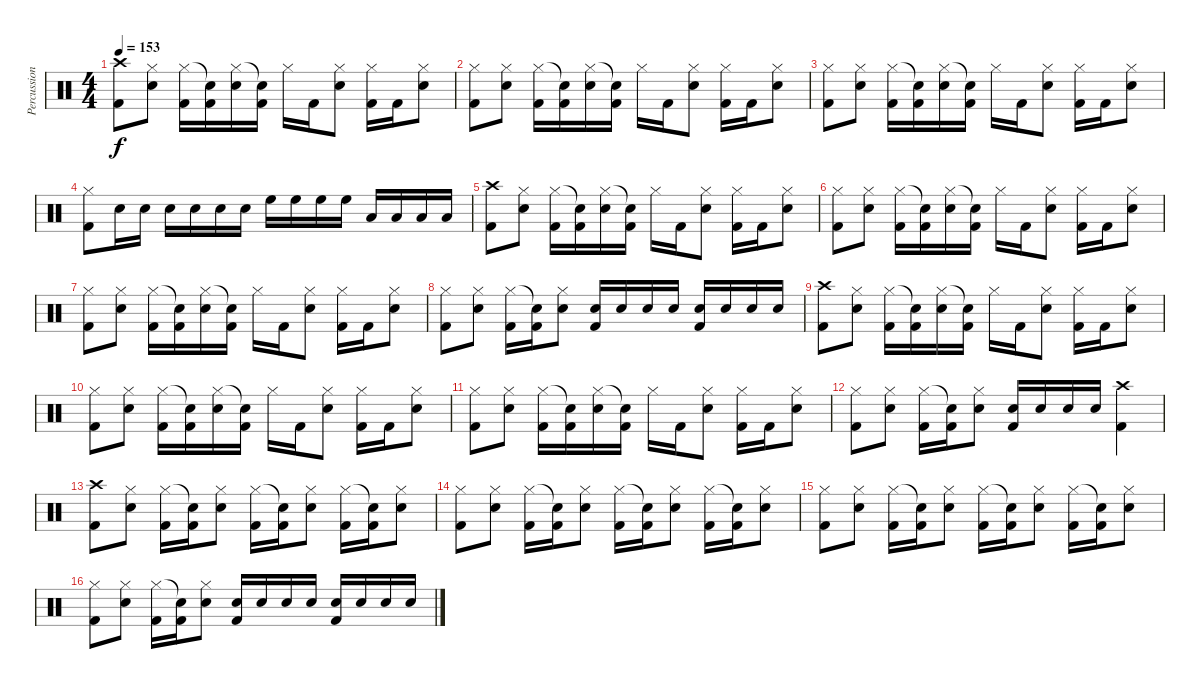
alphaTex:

\track ("Percussion" "Percussion") {instrument percussion}
\staff {score}
\articulation defaults
\ts (4 4)
\tempo 153
\clef neutral
\ks c
("Crash high (hit)" "Kick (hit) 2").8{dy f} ("Hi-Hat (closed)" "Snare (hit) 2").8 ("Hi-Hat (closed)" "Kick (hit) 2").16 ("Snare (hit)"{t} "Kick (hit) 2").16 ("Hi-Hat (closed)" "Snare (hit) 2").16 ("Snare (hit)"{t} "Kick (hit) 2").16 "Hi-Hat (closed)".16 "Kick (hit) 2".16 ("Hi-Hat (closed)" "Snare (hit) 2").8 ("Hi-Hat (closed)" "Kick (hit) 2").16 "Kick (hit) 2".16 ("Hi-Hat (closed)" "Snare (hit) 2").8 |
("Hi-Hat (closed)" "Kick (hit) 2").8 ("Hi-Hat (closed)" "Snare (hit) 2").8 ("Hi-Hat (closed)" "Kick (hit) 2").16 ("Snare (hit)"{t} "Kick (hit) 2").16 ("Hi-Hat (closed)" "Snare (hit) 2").16 ("Snare (hit)"{t} "Kick (hit) 2").16 "Hi-Hat (closed)".16 "Kick (hit) 2".16 ("Hi-Hat (closed)" "Snare (hit) 2").8 ("Hi-Hat (closed)" "Kick (hit) 2").16 "Kick (hit) 2".16 ("Hi-Hat (closed)" "Snare (hit) 2").8 |
("Hi-Hat (closed)" "Kick (hit) 2").8 ("Hi-Hat (closed)" "Snare (hit) 2").8 ("Hi-Hat (closed)" "Kick (hit) 2").16 ("Snare (hit)"{t} "Kick (hit) 2").16 ("Hi-Hat (closed)" "Snare (hit) 2").16 ("Snare (hit)"{t} "Kick (hit) 2").16 "Hi-Hat (closed)".16 "Kick (hit) 2".16 ("Hi-Hat (closed)" "Snare (hit) 2").8 ("Hi-Hat (closed)" "Kick (hit) 2").16 "Kick (hit) 2".16 ("Hi-Hat (closed)" "Snare (hit) 2").8 |
("Hi-Hat (closed)" "Kick (hit) 2").8 "Snare (hit) 2".16 "Snare (hit) 2".16 "Snare (hit) 2".16 "Snare (hit) 2".16 "Snare (hit) 2".16 "Snare (hit) 2".16 "High Floor Tom (hit)".16 "High Floor Tom (hit)".16 "High Floor Tom (hit)".16 "High Floor Tom (hit)".16 "Low Floor Tom (hit)".16 "Low Floor Tom (hit)".16 "Low Floor Tom (hit)".16 "Low Floor Tom (hit)".16 |
("Crash high (hit)" "Kick (hit) 2").8 ("Hi-Hat (closed)" "Snare (hit) 2").8 ("Hi-Hat (closed)" "Kick (hit) 2").16 ("Snare (hit)"{t} "Kick (hit) 2").16 ("Hi-Hat (closed)" "Snare (hit) 2").16 ("Snare (hit)"{t} "Kick (hit) 2").16 "Hi-Hat (closed)".16 "Kick (hit) 2".16 ("Hi-Hat (closed)" "Snare (hit) 2").8 ("Hi-Hat (closed)" "Kick (hit) 2").16 "Kick (hit) 2".16 ("Hi-Hat (closed)" "Snare (hit) 2").8 |
("Hi-Hat (closed)" "Kick (hit) 2").8 ("Hi-Hat (closed)" "Snare (hit) 2").8 ("Hi-Hat (closed)" "Kick (hit) 2").16 ("Snare (hit)"{t} "Kick (hit) 2").16 ("Hi-Hat (closed)" "Snare (hit) 2").16 ("Snare (hit)"{t} "Kick (hit) 2").16 "Hi-Hat (closed)".16 "Kick (hit) 2".16 ("Hi-Hat (closed)" "Snare (hit) 2").8 ("Hi-Hat (closed)" "Kick (hit) 2").16 "Kick (hit) 2".16 ("Hi-Hat (closed)" "Snare (hit) 2").8 |
("Hi-Hat (closed)" "Kick (hit) 2").8 ("Hi-Hat (closed)" "Snare (hit) 2").8 ("Hi-Hat (closed)" "Kick (hit) 2").16 ("Snare (hit)"{t} "Kick (hit) 2").16 ("Hi-Hat (closed)" "Snare (hit) 2").16 ("Snare (hit)"{t} "Kick (hit) 2").16 "Hi-Hat (closed)".16 "Kick (hit) 2".16 ("Hi-Hat (closed)" "Snare (hit) 2").8 ("Hi-Hat (closed)" "Kick (hit) 2").16 "Kick (hit) 2".16 ("Hi-Hat (closed)" "Snare (hit) 2").8 |
("Hi-Hat (closed)" "Kick (hit) 2").8 ("Hi-Hat (closed)" "Snare (hit) 2").8 ("Hi-Hat (closed)" "Kick (hit) 2").16 ("Snare (hit)"{t} "Kick (hit) 2").16 ("Hi-Hat (closed)" "Snare (hit) 2").8 ("Snare (hit) 2" "Kick (hit) 2").16 "Snare (hit) 2".16 "Snare (hit) 2".16 "Snare (hit) 2".16 ("Snare (hit) 2" "Kick (hit) 2").16 "Snare (hit) 2".16 "Snare (hit) 2".16 "Snare (hit) 2".16 |
("Crash high (hit)" "Kick (hit) 2").8 ("Hi-Hat (closed)" "Snare (hit) 2").8 ("Hi-Hat (closed)" "Kick (hit) 2").16 ("Snare (hit)"{t} "Kick (hit) 2").16 ("Hi-Hat (closed)" "Snare (hit) 2").16 ("Snare (hit)"{t} "Kick (hit) 2").16 "Hi-Hat (closed)".16 "Kick (hit) 2".16 ("Hi-Hat (closed)" "Snare (hit) 2").8 ("Hi-Hat (closed)" "Kick (hit) 2").16 "Kick (hit) 2".16 ("Hi-Hat (closed)" "Snare (hit) 2").8 |
("Hi-Hat (closed)" "Kick (hit) 2").8 ("Hi-Hat (closed)" "Snare (hit) 2").8 ("Hi-Hat (closed)" "Kick (hit) 2").16 ("Snare (hit)"{t} "Kick (hit) 2").16 ("Hi-Hat (closed)" "Snare (hit) 2").16 ("Snare (hit)"{t} "Kick (hit) 2").16 "Hi-Hat (closed)".16 "Kick (hit) 2".16 ("Hi-Hat (closed)" "Snare (hit) 2").8 ("Hi-Hat (closed)" "Kick (hit) 2").16 "Kick (hit) 2".16 ("Hi-Hat (closed)" "Snare (hit) 2").8 |
("Hi-Hat (closed)" "Kick (hit) 2").8 ("Hi-Hat (closed)" "Snare (hit) 2").8 ("Hi-Hat (closed)" "Kick (hit) 2").16 ("Snare (hit)"{t} "Kick (hit) 2").16 ("Hi-Hat (closed)" "Snare (hit) 2").16 ("Snare (hit)"{t} "Kick (hit) 2").16 "Hi-Hat (closed)".16 "Kick (hit) 2".16 ("Hi-Hat (closed)" "Snare (hit) 2").8 ("Hi-Hat (closed)" "Kick (hit) 2").16 "Kick (hit) 2".16 ("Hi-Hat (closed)" "Snare (hit) 2").8 |
("Hi-Hat (closed)" "Kick (hit) 2").8 ("Hi-Hat (closed)" "Snare (hit) 2").8 ("Hi-Hat (closed)" "Kick (hit) 2").16 ("Snare (hit)"{t} "Kick (hit) 2").16 ("Hi-Hat (closed)" "Snare (hit) 2").8 ("Snare (hit) 2" "Kick (hit) 2").16 "Snare (hit) 2".16 "Snare (hit) 2".16 "Snare (hit) 2".16 ("Crash high (hit)" "Kick (hit) 2").4 |
("Crash high (hit)" "Kick (hit) 2").8 ("Hi-Hat (closed)" "Snare (hit) 2").8 ("Hi-Hat (closed)" "Kick (hit) 2").16 ("Snare (hit)"{t} "Kick (hit) 2").16 ("Hi-Hat (closed)" "Snare (hit) 2").8 ("Hi-Hat (closed)" "Kick (hit) 2").16 ("Snare (hit)"{t} "Kick (hit) 2").16 ("Hi-Hat (closed)" "Snare (hit) 2").8 ("Hi-Hat (closed)" "Kick (hit) 2").16 ("Snare (hit)"{t} "Kick (hit) 2").16 ("Hi-Hat (closed)" "Snare (hit) 2").8 |
("Hi-Hat (closed)" "Kick (hit) 2").8 ("Hi-Hat (closed)" "Snare (hit) 2").8 ("Hi-Hat (closed)" "Kick (hit) 2").16 ("Snare (hit)"{t} "Kick (hit) 2").16 ("Hi-Hat (closed)" "Snare (hit) 2").8 ("Hi-Hat (closed)" "Kick (hit) 2").16 ("Snare (hit)"{t} "Kick (hit) 2").16 ("Hi-Hat (closed)" "Snare (hit) 2").8 ("Hi-Hat (closed)" "Kick (hit) 2").16 ("Snare (hit)"{t} "Kick (hit) 2").16 ("Hi-Hat (closed)" "Snare (hit) 2").8 |
("Hi-Hat (closed)" "Kick (hit) 2").8 ("Hi-Hat (closed)" "Snare (hit) 2").8 ("Hi-Hat (closed)" "Kick (hit) 2").16 ("Snare (hit)"{t} "Kick (hit) 2").16 ("Hi-Hat (closed)" "Snare (hit) 2").8 ("Hi-Hat (closed)" "Kick (hit) 2").16 ("Snare (hit)"{t} "Kick (hit) 2").16 ("Hi-Hat (closed)" "Snare (hit) 2").8 ("Hi-Hat (closed)" "Kick (hit) 2").16 ("Snare (hit)"{t} "Kick (hit) 2").16 ("Hi-Hat (closed)" "Snare (hit) 2").8 |
("Hi-Hat (closed)" "Kick (hit) 2").8 ("Hi-Hat (closed)" "Snare (hit) 2").8 ("Hi-Hat (closed)" "Kick (hit) 2").16 ("Snare (hit)"{t} "Kick (hit) 2").16 ("Hi-Hat (closed)" "Snare (hit) 2").8 ("Snare (hit) 2" "Kick (hit) 2").16 "Snare (hit) 2".16 "Snare (hit) 2".16 "Snare (hit) 2".16 ("Snare (hit) 2" "Kick (hit) 2").16 "Snare (hit) 2".16 "Snare (hit) 2".16 "Snare (hit) 2".16
